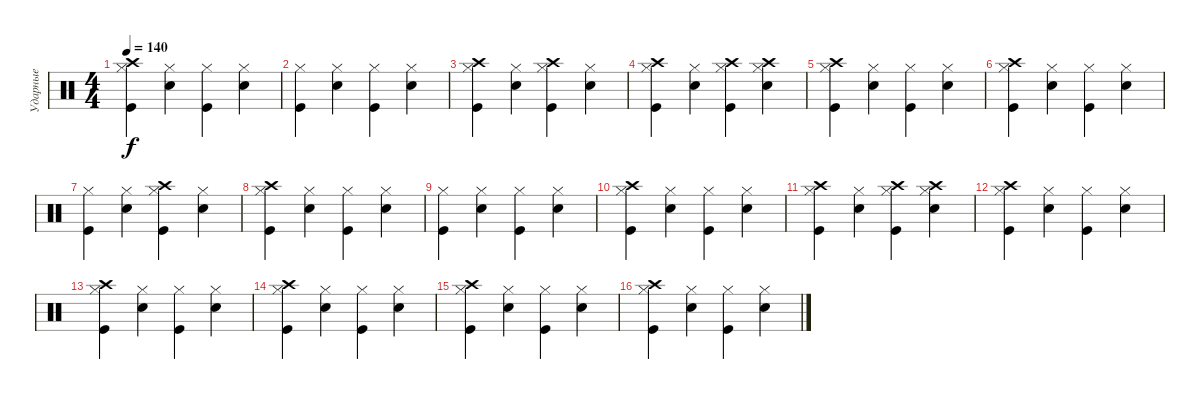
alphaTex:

\track ("Ударные" "Ударные") {instrument percussion}
\staff {score}
\articulation defaults
\ts (4 4)
\tempo 140
\clef neutral
\ks c
("Crash high (hit)" "Hi-Hat (closed)" "Kick (hit)").4{dy f} ("Hi-Hat (closed)" "Snare (hit) 2").4 ("Hi-Hat (closed)" "Kick (hit)").4 ("Hi-Hat (closed)" "Snare (hit) 2").4 |
("Hi-Hat (closed)" "Kick (hit)").4 ("Hi-Hat (closed)" "Snare (hit) 2").4 ("Hi-Hat (closed)" "Kick (hit)").4 ("Hi-Hat (closed)" "Snare (hit) 2").4 |
("Crash high (hit)" "Hi-Hat (closed)" "Kick (hit)").4 ("Hi-Hat (closed)" "Snare (hit) 2").4 ("Crash high (hit)" "Hi-Hat (closed)" "Kick (hit)").4 ("Hi-Hat (closed)" "Snare (hit) 2").4 |
("Crash high (hit)" "Hi-Hat (closed)" "Kick (hit)").4 ("Hi-Hat (closed)" "Snare (hit) 2").4 ("Crash high (hit)" "Hi-Hat (closed)" "Kick (hit)").4 ("Crash high (hit)" "Hi-Hat (closed)" "Snare (hit) 2").4 |
("Crash high (hit)" "Hi-Hat (closed)" "Kick (hit)").4 ("Hi-Hat (closed)" "Snare (hit) 2").4 ("Hi-Hat (closed)" "Kick (hit)").4 ("Hi-Hat (closed)" "Snare (hit) 2").4 |
("Crash high (hit)" "Hi-Hat (closed)" "Kick (hit)").4 ("Hi-Hat (closed)" "Snare (hit) 2").4 ("Hi-Hat (closed)" "Kick (hit)").4 ("Hi-Hat (closed)" "Snare (hit) 2").4 |
("Hi-Hat (closed)" "Kick (hit)").4 ("Hi-Hat (closed)" "Snare (hit) 2").4 ("Crash high (hit)" "Hi-Hat (closed)" "Kick (hit)").4 ("Hi-Hat (closed)" "Snare (hit) 2").4 |
("Crash high (hit)" "Hi-Hat (closed)" "Kick (hit)").4 ("Hi-Hat (closed)" "Snare (hit) 2").4 ("Hi-Hat (closed)" "Kick (hit)").4 ("Hi-Hat (closed)" "Snare (hit) 2").4 |
("Hi-Hat (closed)" "Kick (hit)").4 ("Hi-Hat (closed)" "Snare (hit) 2").4 ("Hi-Hat (closed)" "Kick (hit)").4 ("Hi-Hat (closed)" "Snare (hit) 2").4 |
("Crash high (hit)" "Hi-Hat (closed)" "Kick (hit)").4 ("Hi-Hat (closed)" "Snare (hit) 2").4 ("Hi-Hat (closed)" "Kick (hit)").4 ("Hi-Hat (closed)" "Snare (hit) 2").4 |
("Crash high (hit)" "Hi-Hat (closed)" "Kick (hit)").4 ("Hi-Hat (closed)" "Snare (hit) 2").4 ("Crash high (hit)" "Hi-Hat (closed)" "Kick (hit)").4 ("Crash high (hit)" "Hi-Hat (closed)" "Snare (hit) 2").4 |
("Crash high (hit)" "Hi-Hat (closed)" "Kick (hit)").4 ("Hi-Hat (closed)" "Snare (hit) 2").4 ("Hi-Hat (closed)" "Kick (hit)").4 ("Hi-Hat (closed)" "Snare (hit) 2").4 |
("Crash high (hit)" "Hi-Hat (closed)" "Kick (hit)").4 ("Hi-Hat (closed)" "Snare (hit) 2").4 ("Hi-Hat (closed)" "Kick (hit)").4 ("Hi-Hat (closed)" "Snare (hit) 2").4 |
("Crash high (hit)" "Hi-Hat (closed)" "Kick (hit)").4 ("Hi-Hat (closed)" "Snare (hit) 2").4 ("Hi-Hat (closed)" "Kick (hit)").4 ("Hi-Hat (closed)" "Snare (hit) 2").4 |
("Crash high (hit)" "Hi-Hat (closed)" "Kick (hit)").4 ("Hi-Hat (closed)" "Snare (hit) 2").4 ("Hi-Hat (closed)" "Kick (hit)").4 ("Hi-Hat (closed)" "Snare (hit) 2").4 |
("Crash high (hit)" "Hi-Hat (closed)" "Kick (hit)").4 ("Hi-Hat (closed)" "Snare (hit) 2").4 ("Hi-Hat (closed)" "Kick (hit)").4 ("Hi-Hat (closed)" "Snare (hit) 2").4
